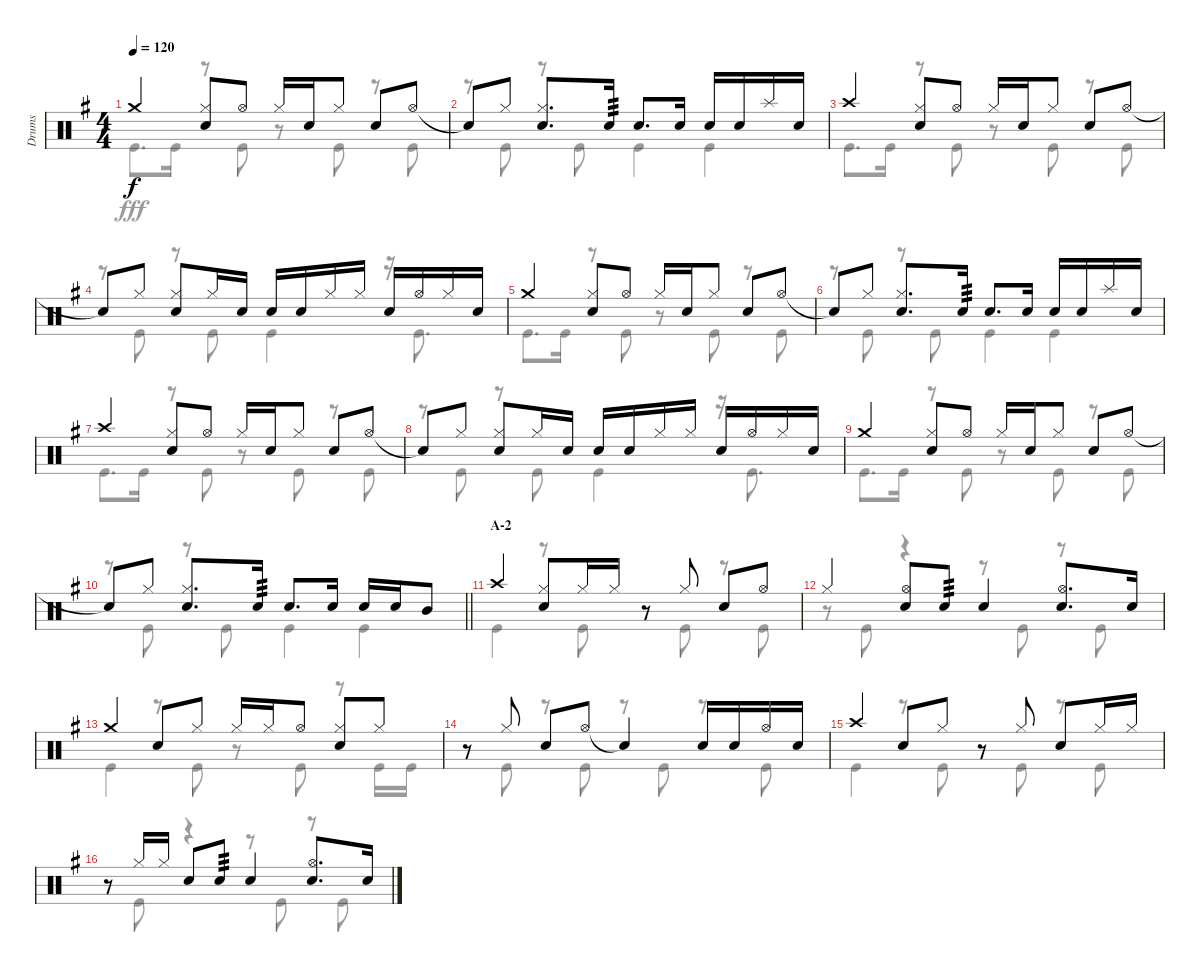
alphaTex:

\track ("Drums" "Drums") {instrument percussion}
\staff {score}
\articulation defaults
\voice
\ts (4 4)
\tempo 120
\clef neutral
\ks g "Crash medium (hit)".4{dy f}
("Hi-Hat (closed)" "Snare (hit) 2").8 "Hi-Hat (open)".8 "Hi-Hat (closed)".16 "Snare (hit) 2".16 "Hi-Hat (closed)".8 "Snare (hit) 2".8 "Hi-Hat (open)".8 |
"Snare (hit)"{t}.8 "Hi-Hat (closed)".8 ("Hi-Hat (closed)" "Snare (hit) 2").8{d} "Snare (hit) 2".16{tp 3} "Snare (hit) 2".8{d} "Snare (hit) 2".16 "Snare (hit) 2".16 "Snare (hit) 2".16 "Splash (hit)".16 "Snare (hit) 2".16 |
"Crash high (hit)".4 ("Hi-Hat (closed)" "Snare (hit) 2").8 "Hi-Hat (open)".8 "Hi-Hat (closed)".16 "Snare (hit) 2".16 "Hi-Hat (closed)".8 "Snare (hit) 2".8 "Hi-Hat (open)".8 |
"Snare (hit)"{t}.8 "Hi-Hat (closed)".8 ("Hi-Hat (closed)" "Snare (hit) 2").8 "Hi-Hat (closed)".16 "Snare (hit) 2".16 "Snare (hit) 2".16 "Snare (hit) 2".16 "Hi-Hat (closed)".16 "Hi-Hat (closed)".16 "Snare (hit) 2".16 "Hi-Hat (open)".16 "Hi-Hat (closed)".16 "Snare (hit) 2".16 |
"Crash medium (hit)".4 ("Hi-Hat (closed)" "Snare (hit) 2").8 "Hi-Hat (open)".8 "Hi-Hat (closed)".16 "Snare (hit) 2".16 "Hi-Hat (closed)".8 "Snare (hit) 2".8 "Hi-Hat (open)".8 |
"Snare (hit)"{t}.8 "Hi-Hat (closed)".8 ("Hi-Hat (closed)" "Snare (hit) 2").8{d} "Snare (hit) 2".16{tp 3} "Snare (hit) 2".8{d} "Snare (hit) 2".16 "Snare (hit) 2".16 "Snare (hit) 2".16 "Splash (hit)".16 "Snare (hit) 2".16 |
"Crash high (hit)".4 ("Hi-Hat (closed)" "Snare (hit) 2").8 "Hi-Hat (open)".8 "Hi-Hat (closed)".16 "Snare (hit) 2".16 "Hi-Hat (closed)".8 "Snare (hit) 2".8 "Hi-Hat (open)".8 |
"Snare (hit)"{t}.8 "Hi-Hat (closed)".8 ("Hi-Hat (closed)" "Snare (hit) 2").8 "Hi-Hat (closed)".16 "Snare (hit) 2".16 "Snare (hit) 2".16 "Snare (hit) 2".16 "Hi-Hat (closed)".16 "Hi-Hat (closed)".16 "Snare (hit) 2".16 "Hi-Hat (open)".16 "Hi-Hat (closed)".16 "Snare (hit) 2".16 |
"Crash medium (hit)".4 ("Hi-Hat (closed)" "Snare (hit) 2").8 "Hi-Hat (open)".8 "Hi-Hat (closed)".16 "Snare (hit) 2".16 "Hi-Hat (closed)".8 "Snare (hit) 2".8 "Hi-Hat (open)".8 |
\barLineRight lightlight "Snare (hit)"{t}.8 "Hi-Hat (closed)".8
("Hi-Hat (closed)" "Snare (hit) 2").8{d} "Snare (hit) 2".16{tp 3} "Snare (hit) 2".8{d} "Snare (hit) 2".16 "Snare (hit) 2".16 "Snare (hit) 2".16 "Mid Tom (hit)".8 |
\section ("" "A-2")
"Crash high (hit)".4 ("Hi-Hat (closed)" "Snare (hit) 2").8 "Hi-Hat (closed)".16 "Hi-Hat (closed)".16 r.8 "Hi-Hat (closed)".8 "Snare (hit) 2".8 "Hi-Hat (open)".8 |
"Hi-Hat (closed)".4 ("Hi-Hat (open)" "Snare (hit) 2").8 "Snare (hit) 2".8{tp 3} "Snare (hit) 2".4 ("Hi-Hat (open)" "Snare (hit) 2").8{d} "Snare (hit) 2".16 |
"Crash medium (hit)".4 "Snare (hit) 2".8 "Hi-Hat (closed)".8 "Hi-Hat (closed)".16 "Hi-Hat (closed)".16 "Hi-Hat (open)".8 ("Hi-Hat (closed)" "Snare (hit) 2").8 "Hi-Hat (closed)".8 |
r.8 "Hi-Hat (closed)".8 "Snare (hit) 2".8 "Hi-Hat (open)".8 "Snare (hit)"{t}.4 "Snare (hit) 2".16 "Snare (hit) 2".16 "Hi-Hat (open)".16 "Snare (hit) 2".16 |
"Crash high (hit)".4 "Snare (hit) 2".8 "Hi-Hat (closed)".8 r.8 "Hi-Hat (closed)".8 "Snare (hit) 2".8 "Hi-Hat (closed)".16 "Hi-Hat (closed)".16 |
r.8 "Hi-Hat (closed)".16 "Hi-Hat (closed)".16 "Snare (hit) 2".8 "Snare (hit) 2".8{tp 3} "Snare (hit) 2".4 ("Hi-Hat (open)" "Snare (hit) 2").8{d} "Snare (hit) 2".16
\voice
\clef neutral
\ottava regular
\simile none
\ks g "Kick (hit)".8{d dy fff} "Kick (hit)".16
r.8 "Kick (hit)".8 r.8 "Kick (hit)".8 r.8 "Kick (hit)".8 |
r.8 "Kick (hit)".8 r.8 "Kick (hit)".8 "Kick (hit)".4 "Kick (hit)".4 |
"Kick (hit)".8{d} "Kick (hit)".16 r.8 "Kick (hit)".8 r.8 "Kick (hit)".8 r.8 "Kick (hit)".8 |
r.8 "Kick (hit)".8 r.8 "Kick (hit)".8 "Kick (hit)".4 r.16 "Kick (hit)".8{d} |
"Kick (hit)".8{d} "Kick (hit)".16 r.8 "Kick (hit)".8 r.8 "Kick (hit)".8 r.8 "Kick (hit)".8 |
r.8 "Kick (hit)".8 r.8 "Kick (hit)".8 "Kick (hit)".4 "Kick (hit)".4 |
"Kick (hit)".8{d} "Kick (hit)".16 r.8 "Kick (hit)".8 r.8 "Kick (hit)".8 r.8 "Kick (hit)".8 |
r.8 "Kick (hit)".8 r.8 "Kick (hit)".8 "Kick (hit)".4 r.16 "Kick (hit)".8{d} |
"Kick (hit)".8{d} "Kick (hit)".16 r.8 "Kick (hit)".8 r.8 "Kick (hit)".8 r.8 "Kick (hit)".8 |
\barLineRight lightlight
r.8 "Kick (hit)".8 r.8 "Kick (hit)".8 "Kick (hit)".4 "Kick (hit)".4 |
"Kick (hit)".4 r.8 "Kick (hit)".8 r.8 "Kick (hit)".8 r.8 "Kick (hit)".8 |
r.8 "Kick (hit)".8 r.4 r.8 "Kick (hit)".8 r.8 "Kick (hit)".8 |
"Kick (hit)".4 r.8 "Kick (hit)".8 r.8 "Kick (hit)".8 r.8 "Kick (hit)".16 "Kick (hit)".16 |
r.8 "Kick (hit)".8 r.8 "Kick (hit)".8 r.8 "Kick (hit)".8 r.8 "Kick (hit)".8 |
"Kick (hit)".4 r.8 "Kick (hit)".8 r.8 "Kick (hit)".8 r.8 "Kick (hit)".8 |
r.8 "Kick (hit)".8 r.4 r.8 "Kick (hit)".8 r.8 "Kick (hit)".8
